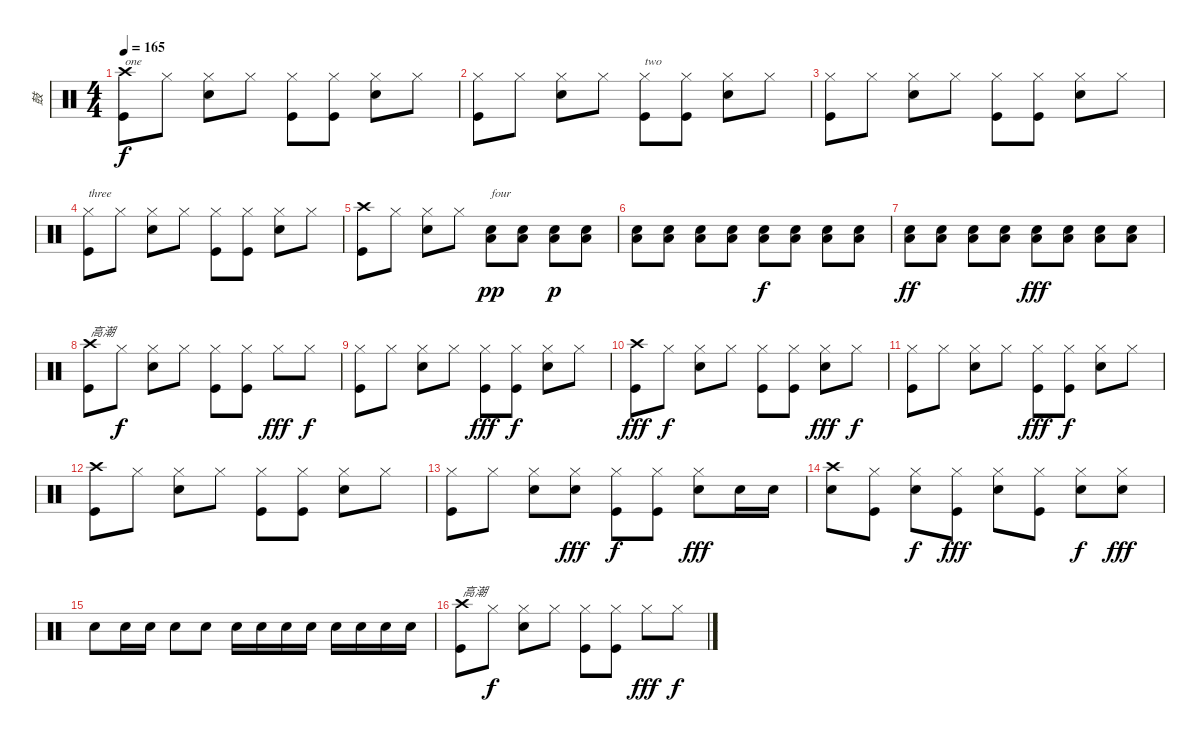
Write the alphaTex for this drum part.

\track ("鼓" "鼓") {instrument percussion}
\staff {score}
\articulation defaults
\ts (4 4)
\tempo 165
\clef neutral
\ks c
("Crash high (hit)" "Kick (hit)").8{txt "one" dy f} "Hi-Hat (closed)".8 ("Hi-Hat (closed)" "Snare (hit) 2").8 "Hi-Hat (closed)".8 ("Hi-Hat (closed)" "Kick (hit)").8 ("Hi-Hat (closed)" "Kick (hit)").8 ("Hi-Hat (closed)" "Snare (hit) 2").8 "Hi-Hat (closed)".8 |
("Hi-Hat (closed)" "Kick (hit)").8 "Hi-Hat (closed)".8 ("Hi-Hat (closed)" "Snare (hit) 2").8 "Hi-Hat (closed)".8 ("Hi-Hat (closed)" "Kick (hit)").8{txt "two"} ("Hi-Hat (closed)" "Kick (hit)").8 ("Hi-Hat (closed)" "Snare (hit) 2").8 "Hi-Hat (closed)".8 |
("Hi-Hat (closed)" "Kick (hit)").8 "Hi-Hat (closed)".8 ("Hi-Hat (closed)" "Snare (hit) 2").8 "Hi-Hat (closed)".8 ("Hi-Hat (closed)" "Kick (hit)").8 ("Hi-Hat (closed)" "Kick (hit)").8 ("Hi-Hat (closed)" "Snare (hit) 2").8 "Hi-Hat (closed)".8 |
("Hi-Hat (closed)" "Kick (hit)").8{txt "three"} "Hi-Hat (closed)".8 ("Hi-Hat (closed)" "Snare (hit) 2").8 "Hi-Hat (closed)".8 ("Hi-Hat (closed)" "Kick (hit)").8 ("Hi-Hat (closed)" "Kick (hit)").8 ("Hi-Hat (closed)" "Snare (hit) 2").8 "Hi-Hat (closed)".8 |
("Crash high (hit)" "Kick (hit)").8 "Hi-Hat (closed)".8 ("Hi-Hat (closed)" "Snare (hit) 2").8 "Hi-Hat (closed)".8 ("Low Floor Tom (hit)" "Snare (hit) 2").8{txt "four" dy pp} ("Low Floor Tom (hit)" "Snare (hit) 2").8 ("Low Floor Tom (hit)" "Snare (hit) 2").8{dy p} ("Low Floor Tom (hit)" "Snare (hit) 2").8 |
("Low Floor Tom (hit)" "Snare (hit) 2").8 ("Low Floor Tom (hit)" "Snare (hit) 2").8 ("Low Floor Tom (hit)" "Snare (hit) 2").8 ("Low Floor Tom (hit)" "Snare (hit) 2").8 ("Low Floor Tom (hit)" "Snare (hit) 2").8{dy f} ("Low Floor Tom (hit)" "Snare (hit) 2").8 ("Low Floor Tom (hit)" "Snare (hit) 2").8 ("Low Floor Tom (hit)" "Snare (hit) 2").8 |
("Low Floor Tom (hit)" "Snare (hit) 2").8{dy ff} ("Low Floor Tom (hit)" "Snare (hit) 2").8 ("Low Floor Tom (hit)" "Snare (hit) 2").8 ("Low Floor Tom (hit)" "Snare (hit) 2").8 ("Low Floor Tom (hit)" "Snare (hit) 2").8{dy fff} ("Low Floor Tom (hit)" "Snare (hit) 2").8 ("Low Floor Tom (hit)" "Snare (hit) 2").8 ("Low Floor Tom (hit)" "Snare (hit) 2").8 |
("Crash high (hit)" "Kick (hit)").8{txt "高潮"} "Hi-Hat (closed)".8{dy f} ("Hi-Hat (closed)" "Snare (hit) 2").8 "Hi-Hat (closed)".8 ("Hi-Hat (closed)" "Kick (hit)").8 ("Hi-Hat (closed)" "Kick (hit)").8 "Hi-Hat (closed)".8{dy fff} "Hi-Hat (closed)".8{dy f} |
("Hi-Hat (closed)" "Kick (hit)").8 "Hi-Hat (closed)".8 ("Hi-Hat (closed)" "Snare (hit) 2").8 "Hi-Hat (closed)".8 ("Hi-Hat (closed)" "Kick (hit)").8{dy fff} ("Hi-Hat (closed)" "Kick (hit)").8{dy f} ("Hi-Hat (closed)" "Snare (hit) 2").8 "Hi-Hat (closed)".8 |
("Crash high (hit)" "Kick (hit)").8{dy fff} "Hi-Hat (closed)".8{dy f} ("Hi-Hat (closed)" "Snare (hit) 2").8 "Hi-Hat (closed)".8 ("Hi-Hat (closed)" "Kick (hit)").8 ("Hi-Hat (closed)" "Kick (hit)").8 ("Hi-Hat (closed)" "Snare (hit) 2").8{dy fff} "Hi-Hat (closed)".8{dy f} |
("Hi-Hat (closed)" "Kick (hit)").8 "Hi-Hat (closed)".8 ("Hi-Hat (closed)" "Snare (hit) 2").8 "Hi-Hat (closed)".8 ("Hi-Hat (closed)" "Kick (hit)").8{dy fff} ("Hi-Hat (closed)" "Kick (hit)").8{dy f} ("Hi-Hat (closed)" "Snare (hit) 2").8 "Hi-Hat (closed)".8 |
("Crash high (hit)" "Kick (hit)").8 "Hi-Hat (closed)".8 ("Hi-Hat (closed)" "Snare (hit) 2").8 "Hi-Hat (closed)".8 ("Hi-Hat (closed)" "Kick (hit)").8 ("Hi-Hat (closed)" "Kick (hit)").8 ("Hi-Hat (closed)" "Snare (hit) 2").8 "Hi-Hat (closed)".8 |
("Hi-Hat (closed)" "Kick (hit)").8 "Hi-Hat (closed)".8 ("Hi-Hat (closed)" "Snare (hit) 2").8 ("Hi-Hat (closed)" "Snare (hit) 2").8{dy fff} ("Hi-Hat (closed)" "Kick (hit)").8{dy f} ("Hi-Hat (closed)" "Kick (hit)").8 ("Hi-Hat (closed)" "Snare (hit) 2").8{dy fff} "Snare (hit) 2".16 "Snare (hit) 2".16 |
("Crash high (hit)" "Snare (hit) 2").8 ("Hi-Hat (closed)" "Kick (hit)").8 ("Hi-Hat (closed)" "Snare (hit) 2").8{dy f} ("Hi-Hat (closed)" "Kick (hit)").8{dy fff} ("Hi-Hat (closed)" "Snare (hit) 2").8 ("Hi-Hat (closed)" "Kick (hit)").8 ("Hi-Hat (closed)" "Snare (hit) 2").8{dy f} ("Hi-Hat (closed)" "Snare (hit) 2").8{dy fff} |
"Snare (hit) 2".8 "Snare (hit) 2".16 "Snare (hit) 2".16 "Snare (hit) 2".8 "Snare (hit) 2".8 "Snare (hit) 2".16 "Snare (hit) 2".16 "Snare (hit) 2".16 "Snare (hit) 2".16 "Snare (hit) 2".16 "Snare (hit) 2".16 "Snare (hit) 2".16 "Snare (hit) 2".16 |
("Crash high (hit)" "Kick (hit)").8{txt "高潮"} "Hi-Hat (closed)".8{dy f} ("Hi-Hat (closed)" "Snare (hit) 2").8 "Hi-Hat (closed)".8 ("Hi-Hat (closed)" "Kick (hit)").8 ("Hi-Hat (closed)" "Kick (hit)").8 "Hi-Hat (closed)".8{dy fff} "Hi-Hat (closed)".8{dy f}
